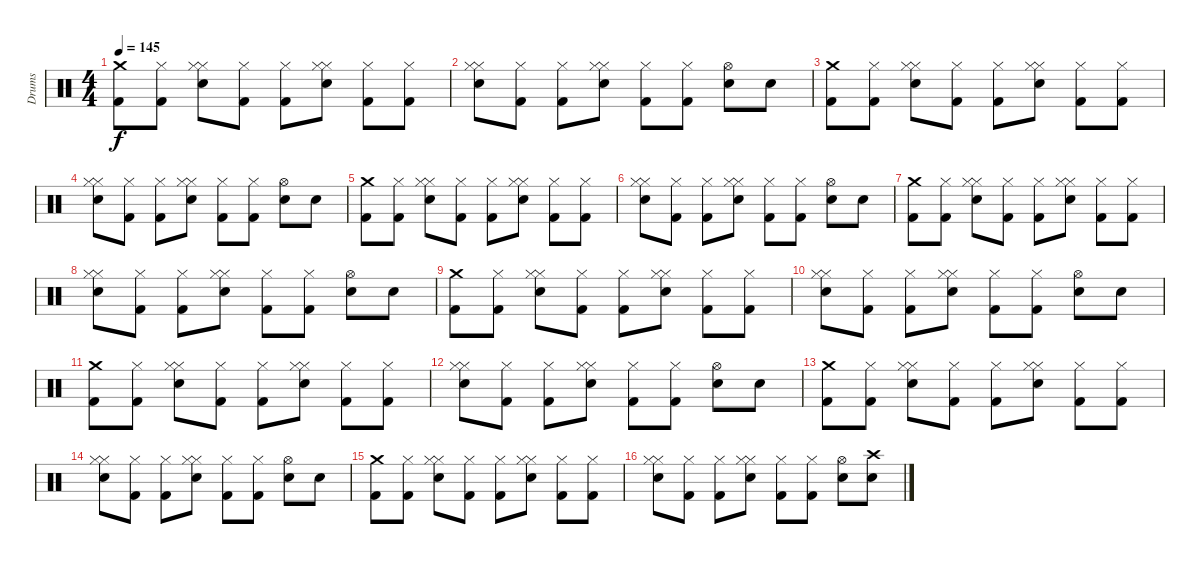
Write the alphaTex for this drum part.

\track ("Drums" "Drums") {instrument percussion}
\staff {score}
\articulation defaults
\ts (4 4)
\tempo 145
\clef neutral
\ks c
("Crash medium (hit)" "Kick (hit) 2").8{dy f} ("Kick (hit) 2" "Hi-Hat (closed)").8 ("Snare (hit) 2" "Hi-Hat (closed)" "Hi-Hat (closed)").8 ("Kick (hit) 2" "Hi-Hat (closed)").8 ("Kick (hit) 2" "Hi-Hat (closed)").8 ("Snare (hit) 2" "Hi-Hat (closed)" "Hi-Hat (closed)").8 ("Kick (hit) 2" "Hi-Hat (closed)").8 ("Kick (hit) 2" "Hi-Hat (closed)").8 |
("Snare (hit) 2" "Hi-Hat (closed)" "Hi-Hat (closed)").8 ("Kick (hit) 2" "Hi-Hat (closed)").8 ("Kick (hit) 2" "Hi-Hat (closed)").8 ("Snare (hit) 2" "Hi-Hat (closed)" "Hi-Hat (closed)").8 ("Kick (hit) 2" "Hi-Hat (closed)").8 ("Kick (hit) 2" "Hi-Hat (closed)").8 ("Snare (hit) 2" "Hi-Hat (open)").8 "Snare (hit) 2".8 |
("Crash medium (hit)" "Kick (hit) 2").8 ("Kick (hit) 2" "Hi-Hat (closed)").8 ("Snare (hit) 2" "Hi-Hat (closed)" "Hi-Hat (closed)").8 ("Kick (hit) 2" "Hi-Hat (closed)").8 ("Kick (hit) 2" "Hi-Hat (closed)").8 ("Snare (hit) 2" "Hi-Hat (closed)" "Hi-Hat (closed)").8 ("Kick (hit) 2" "Hi-Hat (closed)").8 ("Kick (hit) 2" "Hi-Hat (closed)").8 |
("Snare (hit) 2" "Hi-Hat (closed)" "Hi-Hat (closed)").8 ("Kick (hit) 2" "Hi-Hat (closed)").8 ("Kick (hit) 2" "Hi-Hat (closed)").8 ("Snare (hit) 2" "Hi-Hat (closed)" "Hi-Hat (closed)").8 ("Kick (hit) 2" "Hi-Hat (closed)").8 ("Kick (hit) 2" "Hi-Hat (closed)").8 ("Snare (hit) 2" "Hi-Hat (open)").8 "Snare (hit) 2".8 |
("Crash medium (hit)" "Kick (hit) 2").8 ("Kick (hit) 2" "Hi-Hat (closed)").8 ("Snare (hit) 2" "Hi-Hat (closed)" "Hi-Hat (closed)").8 ("Kick (hit) 2" "Hi-Hat (closed)").8 ("Kick (hit) 2" "Hi-Hat (closed)").8 ("Snare (hit) 2" "Hi-Hat (closed)" "Hi-Hat (closed)").8 ("Kick (hit) 2" "Hi-Hat (closed)").8 ("Kick (hit) 2" "Hi-Hat (closed)").8 |
("Snare (hit) 2" "Hi-Hat (closed)" "Hi-Hat (closed)").8 ("Kick (hit) 2" "Hi-Hat (closed)").8 ("Kick (hit) 2" "Hi-Hat (closed)").8 ("Snare (hit) 2" "Hi-Hat (closed)" "Hi-Hat (closed)").8 ("Kick (hit) 2" "Hi-Hat (closed)").8 ("Kick (hit) 2" "Hi-Hat (closed)").8 ("Snare (hit) 2" "Hi-Hat (open)").8 "Snare (hit) 2".8 |
("Crash medium (hit)" "Kick (hit) 2").8 ("Kick (hit) 2" "Hi-Hat (closed)").8 ("Snare (hit) 2" "Hi-Hat (closed)" "Hi-Hat (closed)").8 ("Kick (hit) 2" "Hi-Hat (closed)").8 ("Kick (hit) 2" "Hi-Hat (closed)").8 ("Snare (hit) 2" "Hi-Hat (closed)" "Hi-Hat (closed)").8 ("Kick (hit) 2" "Hi-Hat (closed)").8 ("Kick (hit) 2" "Hi-Hat (closed)").8 |
("Snare (hit) 2" "Hi-Hat (closed)" "Hi-Hat (closed)").8 ("Kick (hit) 2" "Hi-Hat (closed)").8 ("Kick (hit) 2" "Hi-Hat (closed)").8 ("Snare (hit) 2" "Hi-Hat (closed)" "Hi-Hat (closed)").8 ("Kick (hit) 2" "Hi-Hat (closed)").8 ("Kick (hit) 2" "Hi-Hat (closed)").8 ("Snare (hit) 2" "Hi-Hat (open)").8 "Snare (hit) 2".8 |
("Crash medium (hit)" "Kick (hit) 2").8 ("Kick (hit) 2" "Hi-Hat (closed)").8 ("Snare (hit) 2" "Hi-Hat (closed)" "Hi-Hat (closed)").8 ("Kick (hit) 2" "Hi-Hat (closed)").8 ("Kick (hit) 2" "Hi-Hat (closed)").8 ("Snare (hit) 2" "Hi-Hat (closed)" "Hi-Hat (closed)").8 ("Kick (hit) 2" "Hi-Hat (closed)").8 ("Kick (hit) 2" "Hi-Hat (closed)").8 |
("Snare (hit) 2" "Hi-Hat (closed)" "Hi-Hat (closed)").8 ("Kick (hit) 2" "Hi-Hat (closed)").8 ("Kick (hit) 2" "Hi-Hat (closed)").8 ("Snare (hit) 2" "Hi-Hat (closed)" "Hi-Hat (closed)").8 ("Kick (hit) 2" "Hi-Hat (closed)").8 ("Kick (hit) 2" "Hi-Hat (closed)").8 ("Snare (hit) 2" "Hi-Hat (open)").8 "Snare (hit) 2".8 |
("Crash medium (hit)" "Kick (hit) 2").8 ("Kick (hit) 2" "Hi-Hat (closed)").8 ("Snare (hit) 2" "Hi-Hat (closed)" "Hi-Hat (closed)").8 ("Kick (hit) 2" "Hi-Hat (closed)").8 ("Kick (hit) 2" "Hi-Hat (closed)").8 ("Snare (hit) 2" "Hi-Hat (closed)" "Hi-Hat (closed)").8 ("Kick (hit) 2" "Hi-Hat (closed)").8 ("Kick (hit) 2" "Hi-Hat (closed)").8 |
("Snare (hit) 2" "Hi-Hat (closed)" "Hi-Hat (closed)").8 ("Kick (hit) 2" "Hi-Hat (closed)").8 ("Kick (hit) 2" "Hi-Hat (closed)").8 ("Snare (hit) 2" "Hi-Hat (closed)" "Hi-Hat (closed)").8 ("Kick (hit) 2" "Hi-Hat (closed)").8 ("Kick (hit) 2" "Hi-Hat (closed)").8 ("Snare (hit) 2" "Hi-Hat (open)").8 "Snare (hit) 2".8 |
("Crash medium (hit)" "Kick (hit) 2").8 ("Kick (hit) 2" "Hi-Hat (closed)").8 ("Snare (hit) 2" "Hi-Hat (closed)" "Hi-Hat (closed)").8 ("Kick (hit) 2" "Hi-Hat (closed)").8 ("Kick (hit) 2" "Hi-Hat (closed)").8 ("Snare (hit) 2" "Hi-Hat (closed)" "Hi-Hat (closed)").8 ("Kick (hit) 2" "Hi-Hat (closed)").8 ("Kick (hit) 2" "Hi-Hat (closed)").8 |
("Snare (hit) 2" "Hi-Hat (closed)" "Hi-Hat (closed)").8 ("Kick (hit) 2" "Hi-Hat (closed)").8 ("Kick (hit) 2" "Hi-Hat (closed)").8 ("Snare (hit) 2" "Hi-Hat (closed)" "Hi-Hat (closed)").8 ("Kick (hit) 2" "Hi-Hat (closed)").8 ("Kick (hit) 2" "Hi-Hat (closed)").8 ("Snare (hit) 2" "Hi-Hat (open)").8 "Snare (hit) 2".8 |
("Crash medium (hit)" "Kick (hit) 2").8 ("Kick (hit) 2" "Hi-Hat (closed)").8 ("Snare (hit) 2" "Hi-Hat (closed)" "Hi-Hat (closed)").8 ("Kick (hit) 2" "Hi-Hat (closed)").8 ("Kick (hit) 2" "Hi-Hat (closed)").8 ("Snare (hit) 2" "Hi-Hat (closed)" "Hi-Hat (closed)").8 ("Kick (hit) 2" "Hi-Hat (closed)").8 ("Kick (hit) 2" "Hi-Hat (closed)").8 |
("Snare (hit) 2" "Hi-Hat (closed)" "Hi-Hat (closed)").8 ("Kick (hit) 2" "Hi-Hat (closed)").8 ("Kick (hit) 2" "Hi-Hat (closed)").8 ("Snare (hit) 2" "Hi-Hat (closed)" "Hi-Hat (closed)").8 ("Kick (hit) 2" "Hi-Hat (closed)").8 ("Kick (hit) 2" "Hi-Hat (closed)").8 ("Snare (hit) 2" "Hi-Hat (open)").8 ("Crash high (hit)" "Snare (hit) 2").8
